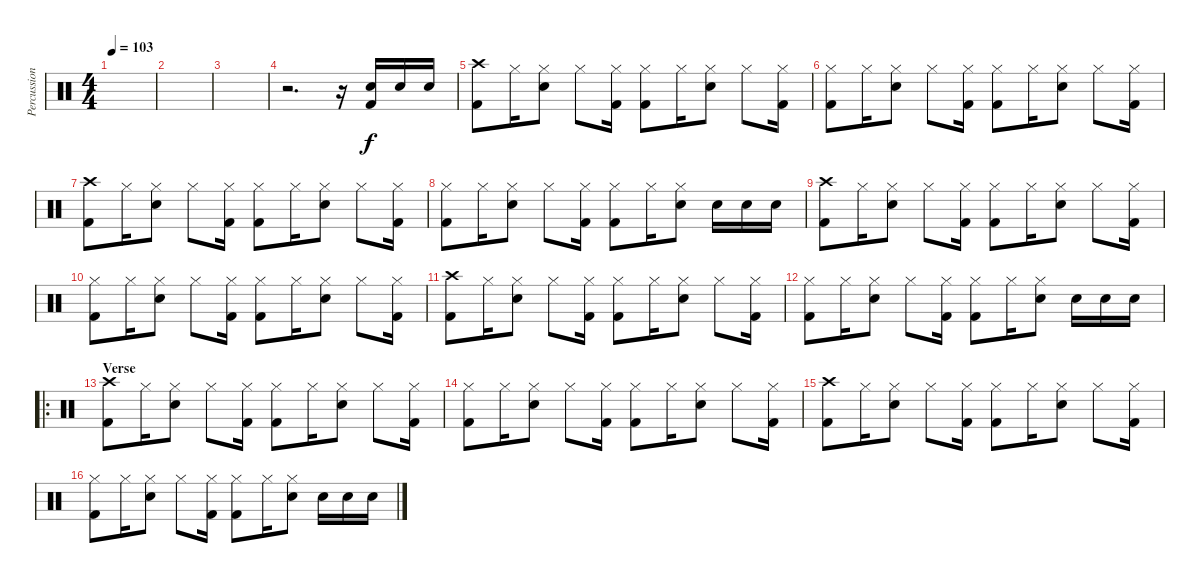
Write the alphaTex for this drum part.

\track ("Percussions" "Percussion") {instrument percussion}
\staff {score}
\articulation defaults
\ts (4 4)
\tempo 103
\clef neutral
\ks c
|
|
|
r.2{d} r.16 ("Snare (hit) 2" "Kick (hit) 2").16 "Snare (hit) 2".16 "Snare (hit) 2".16 |
("Crash high (hit)" "Kick (hit) 2").8 "Hi-Hat (closed)".16 ("Hi-Hat (closed)" "Snare (hit) 2").8 "Hi-Hat (closed)".8 ("Hi-Hat (closed)" "Kick (hit) 2").16 ("Hi-Hat (closed)" "Kick (hit) 2").8 "Hi-Hat (closed)".16 ("Hi-Hat (closed)" "Snare (hit) 2").8 "Hi-Hat (closed)".8 ("Hi-Hat (closed)" "Kick (hit) 2").16 |
("Hi-Hat (closed)" "Kick (hit) 2").8 "Hi-Hat (closed)".16 ("Hi-Hat (closed)" "Snare (hit) 2").8 "Hi-Hat (closed)".8 ("Hi-Hat (closed)" "Kick (hit) 2").16 ("Hi-Hat (closed)" "Kick (hit) 2").8 "Hi-Hat (closed)".16 ("Hi-Hat (closed)" "Snare (hit) 2").8 "Hi-Hat (closed)".8 ("Hi-Hat (closed)" "Kick (hit) 2").16 |
("Crash high (hit)" "Kick (hit) 2").8 "Hi-Hat (closed)".16 ("Hi-Hat (closed)" "Snare (hit) 2").8 "Hi-Hat (closed)".8 ("Hi-Hat (closed)" "Kick (hit) 2").16 ("Hi-Hat (closed)" "Kick (hit) 2").8 "Hi-Hat (closed)".16 ("Hi-Hat (closed)" "Snare (hit) 2").8 "Hi-Hat (closed)".8 ("Hi-Hat (closed)" "Kick (hit) 2").16 |
("Hi-Hat (closed)" "Kick (hit) 2").8 "Hi-Hat (closed)".16 ("Hi-Hat (closed)" "Snare (hit) 2").8 "Hi-Hat (closed)".8 ("Hi-Hat (closed)" "Kick (hit) 2").16 ("Hi-Hat (closed)" "Kick (hit) 2").8 "Hi-Hat (closed)".16 ("Hi-Hat (closed)" "Snare (hit) 2").8 "Snare (hit) 2".16 "Snare (hit) 2".16 "Snare (hit) 2".16 |
("Crash high (hit)" "Kick (hit) 2").8 "Hi-Hat (closed)".16 ("Hi-Hat (closed)" "Snare (hit) 2").8 "Hi-Hat (closed)".8 ("Hi-Hat (closed)" "Kick (hit) 2").16 ("Hi-Hat (closed)" "Kick (hit) 2").8 "Hi-Hat (closed)".16 ("Hi-Hat (closed)" "Snare (hit) 2").8 "Hi-Hat (closed)".8 ("Hi-Hat (closed)" "Kick (hit) 2").16 |
("Hi-Hat (closed)" "Kick (hit) 2").8 "Hi-Hat (closed)".16 ("Hi-Hat (closed)" "Snare (hit) 2").8 "Hi-Hat (closed)".8 ("Hi-Hat (closed)" "Kick (hit) 2").16 ("Hi-Hat (closed)" "Kick (hit) 2").8 "Hi-Hat (closed)".16 ("Hi-Hat (closed)" "Snare (hit) 2").8 "Hi-Hat (closed)".8 ("Hi-Hat (closed)" "Kick (hit) 2").16 |
("Crash high (hit)" "Kick (hit) 2").8 "Hi-Hat (closed)".16 ("Hi-Hat (closed)" "Snare (hit) 2").8 "Hi-Hat (closed)".8 ("Hi-Hat (closed)" "Kick (hit) 2").16 ("Hi-Hat (closed)" "Kick (hit) 2").8 "Hi-Hat (closed)".16 ("Hi-Hat (closed)" "Snare (hit) 2").8 "Hi-Hat (closed)".8 ("Hi-Hat (closed)" "Kick (hit) 2").16 |
("Hi-Hat (closed)" "Kick (hit) 2").8 "Hi-Hat (closed)".16 ("Hi-Hat (closed)" "Snare (hit) 2").8 "Hi-Hat (closed)".8 ("Hi-Hat (closed)" "Kick (hit) 2").16 ("Hi-Hat (closed)" "Kick (hit) 2").8 "Hi-Hat (closed)".16 ("Hi-Hat (closed)" "Snare (hit) 2").8 "Snare (hit) 2".16 "Snare (hit) 2".16 "Snare (hit) 2".16 |
\ro
\section ("" "Verse")
("Crash high (hit)" "Kick (hit) 2").8 "Hi-Hat (closed)".16 ("Hi-Hat (closed)" "Snare (hit) 2").8 "Hi-Hat (closed)".8 ("Hi-Hat (closed)" "Kick (hit) 2").16 ("Hi-Hat (closed)" "Kick (hit) 2").8 "Hi-Hat (closed)".16 ("Hi-Hat (closed)" "Snare (hit) 2").8 "Hi-Hat (closed)".8 ("Hi-Hat (closed)" "Kick (hit) 2").16 |
("Hi-Hat (closed)" "Kick (hit) 2").8 "Hi-Hat (closed)".16 ("Hi-Hat (closed)" "Snare (hit) 2").8 "Hi-Hat (closed)".8 ("Hi-Hat (closed)" "Kick (hit) 2").16 ("Hi-Hat (closed)" "Kick (hit) 2").8 "Hi-Hat (closed)".16 ("Hi-Hat (closed)" "Snare (hit) 2").8 "Hi-Hat (closed)".8 ("Hi-Hat (closed)" "Kick (hit) 2").16 |
("Crash high (hit)" "Kick (hit) 2").8 "Hi-Hat (closed)".16 ("Hi-Hat (closed)" "Snare (hit) 2").8 "Hi-Hat (closed)".8 ("Hi-Hat (closed)" "Kick (hit) 2").16 ("Hi-Hat (closed)" "Kick (hit) 2").8 "Hi-Hat (closed)".16 ("Hi-Hat (closed)" "Snare (hit) 2").8 "Hi-Hat (closed)".8 ("Hi-Hat (closed)" "Kick (hit) 2").16 |
("Hi-Hat (closed)" "Kick (hit) 2").8 "Hi-Hat (closed)".16 ("Hi-Hat (closed)" "Snare (hit) 2").8 "Hi-Hat (closed)".8 ("Hi-Hat (closed)" "Kick (hit) 2").16 ("Hi-Hat (closed)" "Kick (hit) 2").8 "Hi-Hat (closed)".16 ("Hi-Hat (closed)" "Snare (hit) 2").8 "Snare (hit) 2".16 "Snare (hit) 2".16 "Snare (hit) 2".16
